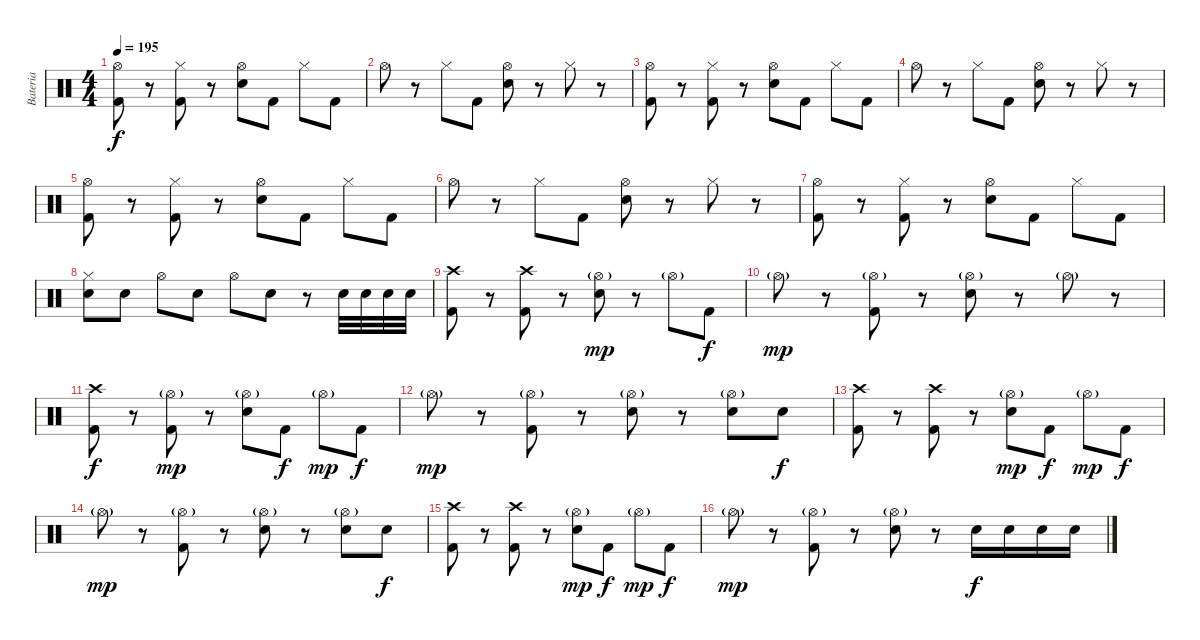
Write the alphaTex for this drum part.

\track ("Bateria" "Bateria") {instrument percussion}
\staff {score}
\articulation defaults
\ts (4 4)
\tempo 195
\clef neutral
\ks c
("Hi-Hat (open)" "Kick (hit) 2").8{dy f} r.8 ("Hi-Hat (closed)" "Kick (hit) 2").8 r.8 ("Hi-Hat (open)" "Snare (hit) 2").8 "Kick (hit) 2".8 "Hi-Hat (closed)".8 "Kick (hit) 2".8 |
"Hi-Hat (open)".8 r.8 "Hi-Hat (closed)".8 "Kick (hit) 2".8 ("Hi-Hat (open)" "Snare (hit) 2").8 r.8 "Hi-Hat (closed)".8 r.8 |
("Hi-Hat (open)" "Kick (hit) 2").8 r.8 ("Hi-Hat (closed)" "Kick (hit) 2").8 r.8 ("Hi-Hat (open)" "Snare (hit) 2").8 "Kick (hit) 2".8 "Hi-Hat (closed)".8 "Kick (hit) 2".8 |
"Hi-Hat (open)".8 r.8 "Hi-Hat (closed)".8 "Kick (hit) 2".8 ("Hi-Hat (open)" "Snare (hit) 2").8 r.8 "Hi-Hat (closed)".8 r.8 |
("Hi-Hat (open)" "Kick (hit) 2").8 r.8 ("Hi-Hat (closed)" "Kick (hit) 2").8 r.8 ("Hi-Hat (open)" "Snare (hit) 2").8 "Kick (hit) 2".8 "Hi-Hat (closed)".8 "Kick (hit) 2".8 |
"Hi-Hat (open)".8 r.8 "Hi-Hat (closed)".8 "Kick (hit) 2".8 ("Hi-Hat (open)" "Snare (hit) 2").8 r.8 "Hi-Hat (closed)".8 r.8 |
("Hi-Hat (open)" "Kick (hit) 2").8 r.8 ("Hi-Hat (closed)" "Kick (hit) 2").8 r.8 ("Hi-Hat (open)" "Snare (hit) 2").8 "Kick (hit) 2".8 "Hi-Hat (closed)".8 "Kick (hit) 2".8 |
("Hi-Hat (closed)" "Snare (hit) 2").8 "Snare (hit) 2".8 "Hi-Hat (open)".8 "Snare (hit) 2".8 "Hi-Hat (open)".8 "Snare (hit) 2".8 r.8 "Snare (hit) 2".32 "Snare (hit) 2".32 "Snare (hit) 2".32 "Snare (hit) 2".32 |
("Crash high (hit)" "Kick (hit) 2").8 r.8 ("Crash high (hit)" "Kick (hit) 2").8 r.8 ("Hi-Hat (open)"{g} "Snare (hit) 2").8{dy mp} r.8 "Hi-Hat (open)"{g}.8 "Kick (hit) 2".8{dy f} |
"Hi-Hat (open)"{g}.8{dy mp} r.8 ("Hi-Hat (open)"{g} "Kick (hit) 2").8 r.8 ("Hi-Hat (open)"{g} "Snare (hit) 2").8 r.8 "Hi-Hat (open)"{g}.8 r.8 |
("Crash high (hit)" "Kick (hit) 2").8{dy f} r.8 ("Hi-Hat (open)"{g} "Kick (hit) 2").8{dy mp} r.8 ("Hi-Hat (open)"{g} "Snare (hit) 2").8 "Kick (hit) 2".8{dy f} "Hi-Hat (open)"{g}.8{dy mp} "Kick (hit) 2".8{dy f} |
"Hi-Hat (open)"{g}.8{dy mp} r.8 ("Hi-Hat (open)"{g} "Kick (hit) 2").8 r.8 ("Hi-Hat (open)"{g} "Snare (hit) 2").8 r.8 ("Hi-Hat (open)"{g} "Snare (hit) 2").8 "Snare (hit) 2".8{dy f} |
("Crash high (hit)" "Kick (hit) 2").8 r.8 ("Crash high (hit)" "Kick (hit) 2").8 r.8 ("Hi-Hat (open)"{g} "Snare (hit) 2").8{dy mp} "Kick (hit) 2".8{dy f} "Hi-Hat (open)"{g}.8{dy mp} "Kick (hit) 2".8{dy f} |
"Hi-Hat (open)"{g}.8{dy mp} r.8 ("Hi-Hat (open)"{g} "Kick (hit) 2").8 r.8 ("Hi-Hat (open)"{g} "Snare (hit) 2").8 r.8 ("Hi-Hat (open)"{g} "Snare (hit) 2").8 "Snare (hit) 2".8{dy f} |
("Crash high (hit)" "Kick (hit) 2").8 r.8 ("Crash high (hit)" "Kick (hit) 2").8 r.8 ("Hi-Hat (open)"{g} "Snare (hit) 2").8{dy mp} "Kick (hit) 2".8{dy f} "Hi-Hat (open)"{g}.8{dy mp} "Kick (hit) 2".8{dy f} |
"Hi-Hat (open)"{g}.8{dy mp} r.8 ("Hi-Hat (open)"{g} "Kick (hit) 2").8 r.8 ("Hi-Hat (open)"{g} "Snare (hit) 2").8 r.8 "Snare (hit) 2".16{dy f} "Snare (hit) 2".16 "Snare (hit) 2".16 "Snare (hit) 2".16
